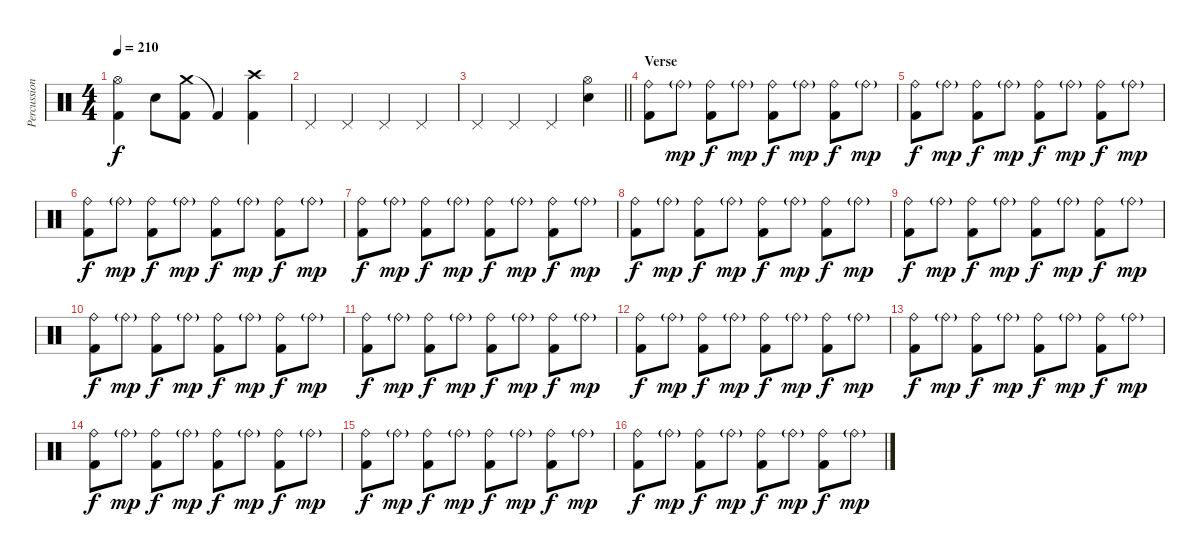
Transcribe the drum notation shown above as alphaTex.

\track ("Percussion" "Percussion") {instrument percussion}
\staff {score}
\articulation defaults
\ts (4 4)
\tempo 210
\clef neutral
\ks c
("Hi-Hat (open)" "Kick (hit) 2").4{dy f} "Electric Snare (hit)".8 ("Crash medium (hit)" "Kick (hit) 2").8 "Kick (hit) 2"{t}.4 ("Crash high (hit)" "Kick (hit) 2").4 |
"Pedal Hi-Hat (hit)".4 "Pedal Hi-Hat (hit)".4 "Pedal Hi-Hat (hit)".4 "Pedal Hi-Hat (hit)".4 |
\barLineRight lightlight "Pedal Hi-Hat (hit)".4 "Pedal Hi-Hat (hit)".4 "Pedal Hi-Hat (hit)".4
("Hi-Hat (open)" "Electric Snare (hit)").4 |
\section ("" "Verse")
("Ride (bell)" "Kick (hit) 2").8 "Ride (bell)"{g}.8{dy mp} ("Ride (bell)" "Kick (hit) 2").8{dy f} "Ride (bell)"{g}.8{dy mp} ("Ride (bell)" "Kick (hit) 2").8{dy f} "Ride (bell)"{g}.8{dy mp} ("Ride (bell)" "Kick (hit) 2").8{dy f} "Ride (bell)"{g}.8{dy mp} |
("Ride (bell)" "Kick (hit) 2").8{dy f} "Ride (bell)"{g}.8{dy mp} ("Ride (bell)" "Kick (hit) 2").8{dy f} "Ride (bell)"{g}.8{dy mp} ("Ride (bell)" "Kick (hit) 2").8{dy f} "Ride (bell)"{g}.8{dy mp} ("Ride (bell)" "Kick (hit) 2").8{dy f} "Ride (bell)"{g}.8{dy mp} |
("Ride (bell)" "Kick (hit) 2").8{dy f} "Ride (bell)"{g}.8{dy mp} ("Ride (bell)" "Kick (hit) 2").8{dy f} "Ride (bell)"{g}.8{dy mp} ("Ride (bell)" "Kick (hit) 2").8{dy f} "Ride (bell)"{g}.8{dy mp} ("Ride (bell)" "Kick (hit) 2").8{dy f} "Ride (bell)"{g}.8{dy mp} |
("Ride (bell)" "Kick (hit) 2").8{dy f} "Ride (bell)"{g}.8{dy mp} ("Ride (bell)" "Kick (hit) 2").8{dy f} "Ride (bell)"{g}.8{dy mp} ("Ride (bell)" "Kick (hit) 2").8{dy f} "Ride (bell)"{g}.8{dy mp} ("Ride (bell)" "Kick (hit) 2").8{dy f} "Ride (bell)"{g}.8{dy mp} |
("Ride (bell)" "Kick (hit) 2").8{dy f} "Ride (bell)"{g}.8{dy mp} ("Ride (bell)" "Kick (hit) 2").8{dy f} "Ride (bell)"{g}.8{dy mp} ("Ride (bell)" "Kick (hit) 2").8{dy f} "Ride (bell)"{g}.8{dy mp} ("Ride (bell)" "Kick (hit) 2").8{dy f} "Ride (bell)"{g}.8{dy mp} |
("Ride (bell)" "Kick (hit) 2").8{dy f} "Ride (bell)"{g}.8{dy mp} ("Ride (bell)" "Kick (hit) 2").8{dy f} "Ride (bell)"{g}.8{dy mp} ("Ride (bell)" "Kick (hit) 2").8{dy f} "Ride (bell)"{g}.8{dy mp} ("Ride (bell)" "Kick (hit) 2").8{dy f} "Ride (bell)"{g}.8{dy mp} |
("Ride (bell)" "Kick (hit) 2").8{dy f} "Ride (bell)"{g}.8{dy mp} ("Ride (bell)" "Kick (hit) 2").8{dy f} "Ride (bell)"{g}.8{dy mp} ("Ride (bell)" "Kick (hit) 2").8{dy f} "Ride (bell)"{g}.8{dy mp} ("Ride (bell)" "Kick (hit) 2").8{dy f} "Ride (bell)"{g}.8{dy mp} |
("Ride (bell)" "Kick (hit) 2").8{dy f} "Ride (bell)"{g}.8{dy mp} ("Ride (bell)" "Kick (hit) 2").8{dy f} "Ride (bell)"{g}.8{dy mp} ("Ride (bell)" "Kick (hit) 2").8{dy f} "Ride (bell)"{g}.8{dy mp} ("Ride (bell)" "Kick (hit) 2").8{dy f} "Ride (bell)"{g}.8{dy mp} |
("Ride (bell)" "Kick (hit) 2").8{dy f} "Ride (bell)"{g}.8{dy mp} ("Ride (bell)" "Kick (hit) 2").8{dy f} "Ride (bell)"{g}.8{dy mp} ("Ride (bell)" "Kick (hit) 2").8{dy f} "Ride (bell)"{g}.8{dy mp} ("Ride (bell)" "Kick (hit) 2").8{dy f} "Ride (bell)"{g}.8{dy mp} |
("Ride (bell)" "Kick (hit) 2").8{dy f} "Ride (bell)"{g}.8{dy mp} ("Ride (bell)" "Kick (hit) 2").8{dy f} "Ride (bell)"{g}.8{dy mp} ("Ride (bell)" "Kick (hit) 2").8{dy f} "Ride (bell)"{g}.8{dy mp} ("Ride (bell)" "Kick (hit) 2").8{dy f} "Ride (bell)"{g}.8{dy mp} |
("Ride (bell)" "Kick (hit) 2").8{dy f} "Ride (bell)"{g}.8{dy mp} ("Ride (bell)" "Kick (hit) 2").8{dy f} "Ride (bell)"{g}.8{dy mp} ("Ride (bell)" "Kick (hit) 2").8{dy f} "Ride (bell)"{g}.8{dy mp} ("Ride (bell)" "Kick (hit) 2").8{dy f} "Ride (bell)"{g}.8{dy mp} |
("Ride (bell)" "Kick (hit) 2").8{dy f} "Ride (bell)"{g}.8{dy mp} ("Ride (bell)" "Kick (hit) 2").8{dy f} "Ride (bell)"{g}.8{dy mp} ("Ride (bell)" "Kick (hit) 2").8{dy f} "Ride (bell)"{g}.8{dy mp} ("Ride (bell)" "Kick (hit) 2").8{dy f} "Ride (bell)"{g}.8{dy mp} |
("Ride (bell)" "Kick (hit) 2").8{dy f} "Ride (bell)"{g}.8{dy mp} ("Ride (bell)" "Kick (hit) 2").8{dy f} "Ride (bell)"{g}.8{dy mp} ("Ride (bell)" "Kick (hit) 2").8{dy f} "Ride (bell)"{g}.8{dy mp} ("Ride (bell)" "Kick (hit) 2").8{dy f} "Ride (bell)"{g}.8{dy mp}
